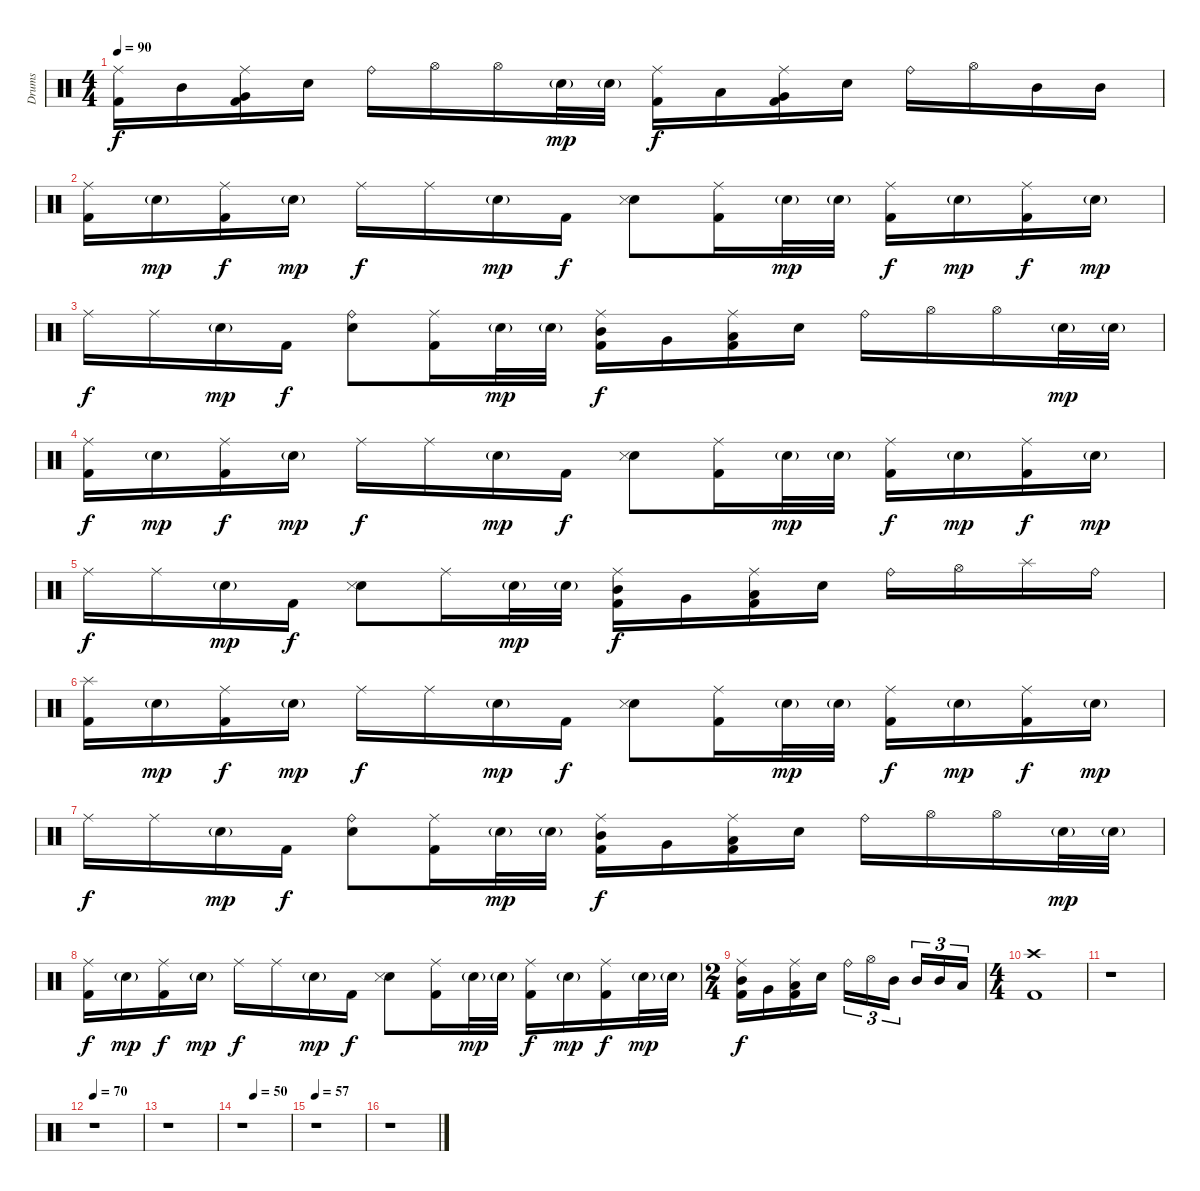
\track ("Drums" "Drums") {instrument percussion}
\staff {score}
\articulation defaults
\ts (4 4)
\tempo 90
\clef neutral
\ks c
("Ride (middle)" "Kick (hit) 2").16{dy f} "Mid Tom (hit)".16 ("Very Low Tom (hit)" "Kick (hit) 2" "Ride (middle)").16 "Electric Snare (hit)".16 "Ride (bell)".16 "Hi-Hat (open)".16 "Hi-Hat (open)".16 "Electric Snare (hit)"{g}.32{dy mp} "Electric Snare (hit)"{g}.32 ("Kick (hit) 2" "Ride (middle)").16{dy f} "Low Tom (hit)".16 ("Very Low Tom (hit)" "Kick (hit) 2" "Ride (middle)").16 "Electric Snare (hit)".16 "Ride (bell)".16 "Hi-Hat (open)".16 "Mid Tom (hit)".16 "Mid Tom (hit)".16 |
("Ride (middle)" "Kick (hit) 2").16 "Electric Snare (hit)"{g}.16{dy mp} ("Ride (middle)" "Kick (hit) 2").16{dy f} "Electric Snare (hit)"{g}.16{dy mp} "Ride (middle)".16{dy f} "Ride (middle)".16 "Electric Snare (hit)"{g}.16{dy mp} "Kick (hit) 2".16{dy f} ("Electric Snare (hit)" "Snare (side stick) 3").8 ("Ride (middle)" "Kick (hit) 2").16 "Electric Snare (hit)"{g}.32{dy mp} "Electric Snare (hit)"{g}.32 ("Kick (hit) 2" "Ride (middle)").16{dy f} "Electric Snare (hit)"{g}.16{dy mp} ("Ride (middle)" "Kick (hit) 2").16{dy f} "Electric Snare (hit)"{g}.16{dy mp} |
"Ride (middle)".16{dy f} "Ride (middle)".16 "Electric Snare (hit)"{g}.16{dy mp} "Kick (hit) 2".16{dy f} ("Electric Snare (hit)" "Ride (bell)").8 ("Ride (middle)" "Kick (hit) 2").16 "Electric Snare (hit)"{g}.32{dy mp} "Electric Snare (hit)"{g}.32 ("Ride (middle)" "Mid Tom (hit)" "Kick (hit) 2").16{dy f} "Very Low Tom (hit)".16 ("Low Floor Tom (hit)" "Ride (middle)" "Kick (hit) 2").16 "Electric Snare (hit)".16 "Ride (bell)".16 "Hi-Hat (open)".16 "Hi-Hat (open)".16 "Electric Snare (hit)"{g}.32{dy mp} "Electric Snare (hit)"{g}.32 |
("Ride (middle)" "Kick (hit) 2").16{dy f} "Electric Snare (hit)"{g}.16{dy mp} ("Ride (middle)" "Kick (hit) 2").16{dy f} "Electric Snare (hit)"{g}.16{dy mp} "Ride (middle)".16{dy f} "Ride (middle)".16 "Electric Snare (hit)"{g}.16{dy mp} "Kick (hit) 2".16{dy f} ("Electric Snare (hit)" "Snare (side stick) 3").8 ("Ride (middle)" "Kick (hit) 2").16 "Electric Snare (hit)"{g}.32{dy mp} "Electric Snare (hit)"{g}.32 ("Kick (hit) 2" "Ride (middle)").16{dy f} "Electric Snare (hit)"{g}.16{dy mp} ("Ride (middle)" "Kick (hit) 2").16{dy f} "Electric Snare (hit)"{g}.16{dy mp} |
"Ride (middle)".16{dy f} "Ride (middle)".16 "Electric Snare (hit)"{g}.16{dy mp} "Kick (hit) 2".16{dy f} ("Electric Snare (hit)" "Snare (side stick) 3").8 "Ride (middle)".16 "Electric Snare (hit)"{g}.32{dy mp} "Electric Snare (hit)"{g}.32 ("Ride (middle)" "Mid Tom (hit)" "Kick (hit) 2").16{dy f} "Very Low Tom (hit)".16 ("Low Floor Tom (hit)" "Ride (middle)" "Kick (hit) 2").16 "Electric Snare (hit)".16 "Ride (bell)".16 "Hi-Hat (open)".16 "Splash (hit)".16 "Ride (bell)".16 |
("Splash (hit)" "Kick (hit) 2").16 "Electric Snare (hit)"{g}.16{dy mp} ("Ride (middle)" "Kick (hit) 2").16{dy f} "Electric Snare (hit)"{g}.16{dy mp} "Ride (middle)".16{dy f} "Ride (middle)".16 "Electric Snare (hit)"{g}.16{dy mp} "Kick (hit) 2".16{dy f} ("Electric Snare (hit)" "Snare (side stick) 3").8 ("Ride (middle)" "Kick (hit) 2").16 "Electric Snare (hit)"{g}.32{dy mp} "Electric Snare (hit)"{g}.32 ("Kick (hit) 2" "Ride (middle)").16{dy f} "Electric Snare (hit)"{g}.16{dy mp} ("Ride (middle)" "Kick (hit) 2").16{dy f} "Electric Snare (hit)"{g}.16{dy mp} |
"Ride (middle)".16{dy f} "Ride (middle)".16 "Electric Snare (hit)"{g}.16{dy mp} "Kick (hit) 2".16{dy f} ("Electric Snare (hit)" "Ride (bell)").8 ("Ride (middle)" "Kick (hit) 2").16 "Electric Snare (hit)"{g}.32{dy mp} "Electric Snare (hit)"{g}.32 ("Ride (middle)" "Mid Tom (hit)" "Kick (hit) 2").16{dy f} "Very Low Tom (hit)".16 ("Low Floor Tom (hit)" "Ride (middle)" "Kick (hit) 2").16 "Electric Snare (hit)".16 "Ride (bell)".16 "Hi-Hat (open)".16 "Hi-Hat (open)".16 "Electric Snare (hit)"{g}.32{dy mp} "Electric Snare (hit)"{g}.32 |
("Ride (middle)" "Kick (hit) 2").16{dy f} "Electric Snare (hit)"{g}.16{dy mp} ("Ride (middle)" "Kick (hit) 2").16{dy f} "Electric Snare (hit)"{g}.16{dy mp} "Ride (middle)".16{dy f} "Ride (middle)".16 "Electric Snare (hit)"{g}.16{dy mp} "Kick (hit) 2".16{dy f} ("Electric Snare (hit)" "Snare (side stick) 3").8 ("Ride (middle)" "Kick (hit) 2").16 "Electric Snare (hit)"{g}.32{dy mp} "Electric Snare (hit)"{g}.32 ("Kick (hit) 2" "Ride (middle)").16{dy f} "Electric Snare (hit)"{g}.16{dy mp} ("Ride (middle)" "Kick (hit) 2").16{dy f} "Electric Snare (hit)"{g}.32{dy mp} "Electric Snare (hit)"{g}.32 |
\ts (2 4)
("Ride (middle)" "Mid Tom (hit)" "Kick (hit) 2").16{dy f} "Very Low Tom (hit)".16 ("Low Floor Tom (hit)" "Ride (middle)" "Kick (hit) 2").16 "Electric Snare (hit)".16 "Ride (bell)".16{tu (3 2)} "Hi-Hat (open)".16{tu (3 2)} "Mid Tom (hit)".16{tu (3 2)} "Mid Tom (hit)".16{tu (3 2)} "Mid Tom (hit)".16{tu (3 2)} "Low Tom (hit)".16{tu (3 2)} |
\ts (4 4)
("Crash high (hit)" "Kick (hit) 2").1 |
r.1 |
\tempo 70
r.1 |
r.1 |
\tempo (50 0.25)
r.1 |
\tempo 57
r.1 |
r.1
